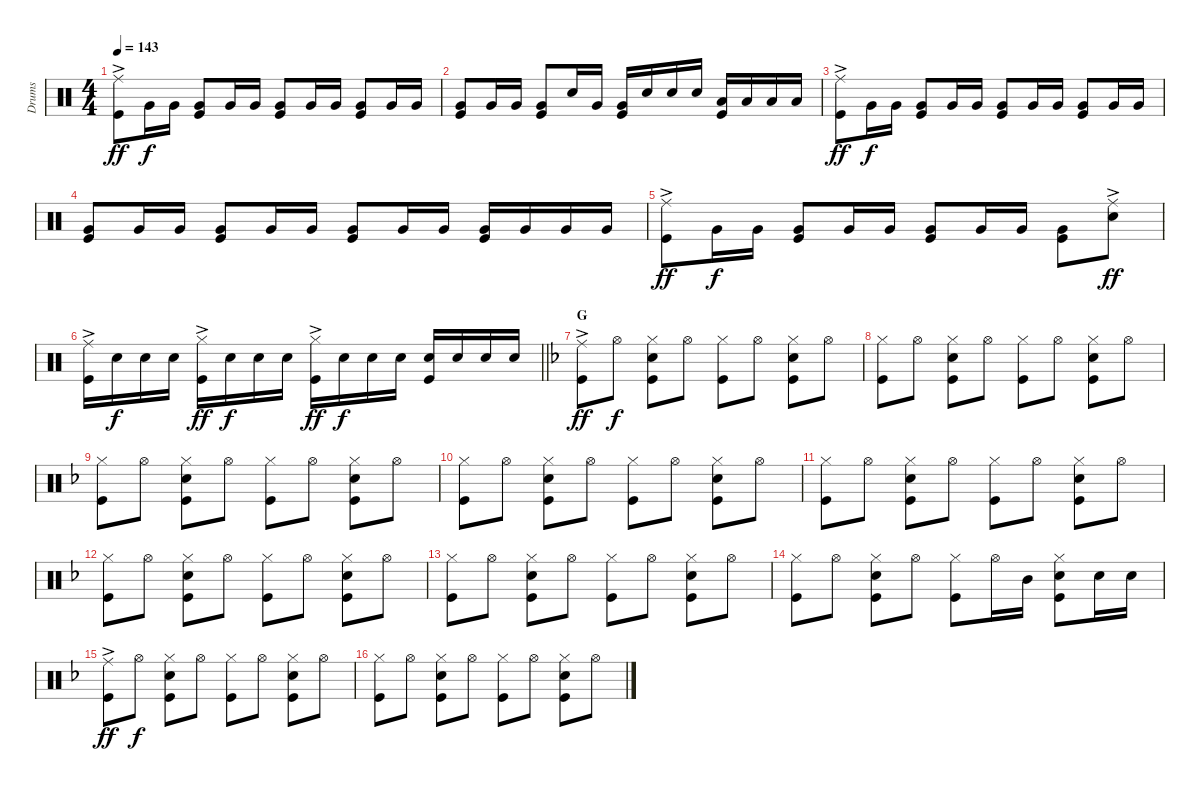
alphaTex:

\track ("Drums" "Drums") {instrument percussion}
\staff {score}
\articulation defaults
\ts (4 4)
\tempo 143
\clef neutral
\ks c
("Ride (middle)"{ac} "Kick (hit)").8{dy ff} "Very Low Tom (hit)".16{dy f} "Very Low Tom (hit)".16 ("Very Low Tom (hit)" "Kick (hit)").8 "Very Low Tom (hit)".16 "Very Low Tom (hit)".16 ("Very Low Tom (hit)" "Kick (hit)").8 "Very Low Tom (hit)".16 "Very Low Tom (hit)".16 ("Very Low Tom (hit)" "Kick (hit)").8 "Very Low Tom (hit)".16 "Very Low Tom (hit)".16 |
("Kick (hit)" "Very Low Tom (hit)").8 "Very Low Tom (hit)".16 "Very Low Tom (hit)".16 ("Kick (hit)" "Very Low Tom (hit)").8 "Snare (hit) 2".16 "Very Low Tom (hit)".16 ("Kick (hit)" "Very Low Tom (hit)").16 "Snare (hit) 2".16 "Snare (hit) 2".16 "Snare (hit) 2".16 ("Kick (hit)" "Low Tom (hit)").16 "Low Tom (hit)".16 "Low Tom (hit)".16 "Low Tom (hit)".16 |
("Ride (middle)"{ac} "Kick (hit)").8{dy ff} "Very Low Tom (hit)".16{dy f} "Very Low Tom (hit)".16 ("Very Low Tom (hit)" "Kick (hit)").8 "Very Low Tom (hit)".16 "Very Low Tom (hit)".16 ("Very Low Tom (hit)" "Kick (hit)").8 "Very Low Tom (hit)".16 "Very Low Tom (hit)".16 ("Very Low Tom (hit)" "Kick (hit)").8 "Very Low Tom (hit)".16 "Very Low Tom (hit)".16 |
("Very Low Tom (hit)" "Kick (hit)").8 "Very Low Tom (hit)".16 "Very Low Tom (hit)".16 ("Very Low Tom (hit)" "Kick (hit)").8 "Very Low Tom (hit)".16 "Very Low Tom (hit)".16 ("Very Low Tom (hit)" "Kick (hit)").8 "Very Low Tom (hit)".16 "Very Low Tom (hit)".16 ("Kick (hit)" "Very Low Tom (hit)").16 "Very Low Tom (hit)".16 "Very Low Tom (hit)".16 "Very Low Tom (hit)".16 |
("Ride (middle)"{ac} "Kick (hit)").8{dy ff} "Very Low Tom (hit)".16{dy f} "Very Low Tom (hit)".16 ("Very Low Tom (hit)" "Kick (hit)").8 "Very Low Tom (hit)".16 "Very Low Tom (hit)".16 ("Very Low Tom (hit)" "Kick (hit)").8 "Very Low Tom (hit)".16 "Very Low Tom (hit)".16 ("Kick (hit)" "Very Low Tom (hit)").8 ("Snare (hit) 2" "Ride (middle)"{ac}).8{dy ff} |
\barLineRight lightlight
("Ride (middle)"{ac} "Kick (hit)").16 "Snare (hit) 2".16{dy f} "Snare (hit) 2".16 "Snare (hit) 2".16 ("Hi-Hat (closed)"{ac} "Kick (hit)").16{dy ff} "Snare (hit) 2".16{dy f} "Snare (hit) 2".16 "Snare (hit) 2".16 ("Hi-Hat (closed)"{ac} "Kick (hit)").16{dy ff} "Snare (hit) 2".16{dy f} "Snare (hit) 2".16 "Snare (hit) 2".16 ("Snare (hit) 2" "Kick (hit)").16 "Snare (hit) 2".16 "Snare (hit) 2".16 "Snare (hit) 2".16 |
\section ("" "G")
\ks dminor
("Ride (middle)"{ac} "Kick (hit)").8{dy ff} "Hi-Hat (open)".8{dy f} ("Hi-Hat (closed)" "Kick (hit)" "Snare (hit) 2").8 "Hi-Hat (open)".8 ("Hi-Hat (closed)" "Kick (hit)").8 "Hi-Hat (open)".8 ("Hi-Hat (closed)" "Kick (hit)" "Snare (hit) 2").8 "Hi-Hat (open)".8 |
("Hi-Hat (closed)" "Kick (hit)").8 "Hi-Hat (open)".8 ("Hi-Hat (closed)" "Kick (hit)" "Snare (hit) 2").8 "Hi-Hat (open)".8 ("Hi-Hat (closed)" "Kick (hit)").8 "Hi-Hat (open)".8 ("Hi-Hat (closed)" "Kick (hit)" "Snare (hit) 2").8 "Hi-Hat (open)".8 |
("Hi-Hat (closed)" "Kick (hit)").8 "Hi-Hat (open)".8 ("Hi-Hat (closed)" "Kick (hit)" "Snare (hit) 2").8 "Hi-Hat (open)".8 ("Hi-Hat (closed)" "Kick (hit)").8 "Hi-Hat (open)".8 ("Hi-Hat (closed)" "Kick (hit)" "Snare (hit) 2").8 "Hi-Hat (open)".8 |
("Hi-Hat (closed)" "Kick (hit)").8 "Hi-Hat (open)".8 ("Hi-Hat (closed)" "Kick (hit)" "Snare (hit) 2").8 "Hi-Hat (open)".8 ("Hi-Hat (closed)" "Kick (hit)").8 "Hi-Hat (open)".8 ("Hi-Hat (closed)" "Kick (hit)" "Snare (hit) 2").8 "Hi-Hat (open)".8 |
("Hi-Hat (closed)" "Kick (hit)").8 "Hi-Hat (open)".8 ("Hi-Hat (closed)" "Kick (hit)" "Snare (hit) 2").8 "Hi-Hat (open)".8 ("Hi-Hat (closed)" "Kick (hit)").8 "Hi-Hat (open)".8 ("Hi-Hat (closed)" "Kick (hit)" "Snare (hit) 2").8 "Hi-Hat (open)".8 |
("Hi-Hat (closed)" "Kick (hit)").8 "Hi-Hat (open)".8 ("Hi-Hat (closed)" "Kick (hit)" "Snare (hit) 2").8 "Hi-Hat (open)".8 ("Hi-Hat (closed)" "Kick (hit)").8 "Hi-Hat (open)".8 ("Hi-Hat (closed)" "Kick (hit)" "Snare (hit) 2").8 "Hi-Hat (open)".8 |
("Hi-Hat (closed)" "Kick (hit)").8 "Hi-Hat (open)".8 ("Hi-Hat (closed)" "Kick (hit)" "Snare (hit) 2").8 "Hi-Hat (open)".8 ("Hi-Hat (closed)" "Kick (hit)").8 "Hi-Hat (open)".8 ("Hi-Hat (closed)" "Kick (hit)" "Snare (hit) 2").8 "Hi-Hat (open)".8 |
("Hi-Hat (closed)" "Kick (hit)").8 "Hi-Hat (open)".8 ("Hi-Hat (closed)" "Kick (hit)" "Snare (hit) 2").8 "Hi-Hat (open)".8 ("Hi-Hat (closed)" "Kick (hit)").8 "Hi-Hat (open)".16 "Mid Tom (hit)".16 ("Kick (hit)" "Hi-Hat (closed)" "Snare (hit) 2").8 "Snare (hit) 2".16 "Snare (hit) 2".16 |
("Ride (middle)"{ac} "Kick (hit)").8{dy ff} "Hi-Hat (open)".8{dy f} ("Hi-Hat (closed)" "Kick (hit)" "Snare (hit) 2").8 "Hi-Hat (open)".8 ("Hi-Hat (closed)" "Kick (hit)").8 "Hi-Hat (open)".8 ("Hi-Hat (closed)" "Kick (hit)" "Snare (hit) 2").8 "Hi-Hat (open)".8 |
("Hi-Hat (closed)" "Kick (hit)").8 "Hi-Hat (open)".8 ("Hi-Hat (closed)" "Kick (hit)" "Snare (hit) 2").8 "Hi-Hat (open)".8 ("Hi-Hat (closed)" "Kick (hit)").8 "Hi-Hat (open)".8 ("Hi-Hat (closed)" "Kick (hit)" "Snare (hit) 2").8 "Hi-Hat (open)".8
